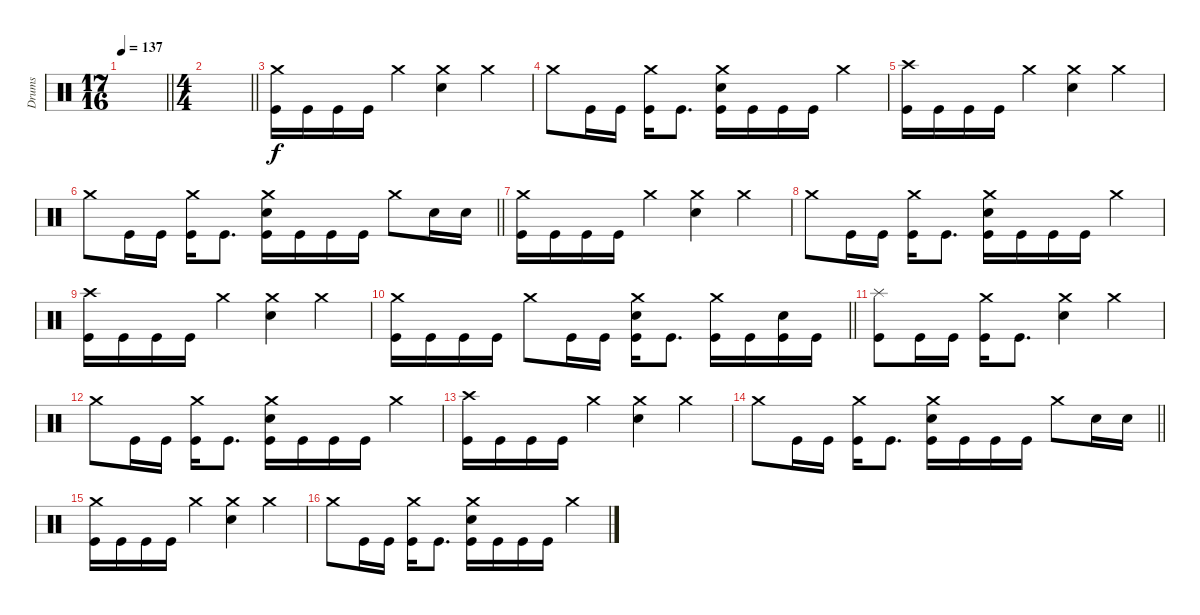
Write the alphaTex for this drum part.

\track ("Drums" "Drums") {instrument percussion}
\staff
\articulation defaults
\ts (17 16)
\tempo 137
\clef neutral
\barLineRight lightlight
\ks c
|
\ts (4 4)
\barLineRight lightlight
|
\section ("" "")
("Crash medium (hit)" "Kick (hit)").16 "Kick (hit)".16 "Kick (hit)".16 "Kick (hit)".16 "Crash medium (hit)".4 ("Crash medium (hit)" "Electric Snare (hit)").4 "Crash medium (hit)".4 |
"Crash medium (hit)".8 "Kick (hit)".16 "Kick (hit)".16 ("Crash medium (hit)" "Kick (hit)").16 "Kick (hit)".8{d} ("Crash medium (hit)" "Electric Snare (hit)" "Kick (hit)").16 "Kick (hit)".16 "Kick (hit)".16 "Kick (hit)".16 "Crash medium (hit)".4 |
("Crash high (hit)" "Kick (hit)").16 "Kick (hit)".16 "Kick (hit)".16 "Kick (hit)".16 "Crash medium (hit)".4 ("Crash medium (hit)" "Electric Snare (hit)").4 "Crash medium (hit)".4 |
\barLineRight lightlight "Crash medium (hit)".8 "Kick (hit)".16 "Kick (hit)".16
("Crash medium (hit)" "Kick (hit)").16 "Kick (hit)".8{d} ("Crash medium (hit)" "Electric Snare (hit)" "Kick (hit)").16 "Kick (hit)".16 "Kick (hit)".16 "Kick (hit)".16 "Crash medium (hit)".8 "Electric Snare (hit)".16 "Electric Snare (hit)".16 |
("Crash medium (hit)" "Kick (hit)").16 "Kick (hit)".16 "Kick (hit)".16 "Kick (hit)".16 "Crash medium (hit)".4 ("Crash medium (hit)" "Electric Snare (hit)").4 "Crash medium (hit)".4 |
"Crash medium (hit)".8 "Kick (hit)".16 "Kick (hit)".16 ("Crash medium (hit)" "Kick (hit)").16 "Kick (hit)".8{d} ("Crash medium (hit)" "Electric Snare (hit)" "Kick (hit)").16 "Kick (hit)".16 "Kick (hit)".16 "Kick (hit)".16 "Crash medium (hit)".4 |
("Crash high (hit)" "Kick (hit)").16 "Kick (hit)".16 "Kick (hit)".16 "Kick (hit)".16 "Crash medium (hit)".4 ("Crash medium (hit)" "Electric Snare (hit)").4 "Crash medium (hit)".4 |
\barLineRight lightlight
("Crash medium (hit)" "Kick (hit)").16 "Kick (hit)".16 "Kick (hit)".16 "Kick (hit)".16 "Crash medium (hit)".8 "Kick (hit)".16 "Kick (hit)".16 ("Crash medium (hit)" "Electric Snare (hit)" "Kick (hit)").16 "Kick (hit)".8{d} ("Crash medium (hit)" "Kick (hit)").16 "Kick (hit)".16 ("Electric Snare (hit)" "Kick (hit)").16 "Kick (hit)".16 |
("Splash (hit)" "Kick (hit)").8 "Kick (hit)".16 "Kick (hit)".16 ("Crash medium (hit)" "Kick (hit)").16 "Kick (hit)".8{d} ("Crash medium (hit)" "Electric Snare (hit)").4 "Crash medium (hit)".4 |
"Crash medium (hit)".8 "Kick (hit)".16 "Kick (hit)".16 ("Crash medium (hit)" "Kick (hit)").16 "Kick (hit)".8{d} ("Crash medium (hit)" "Electric Snare (hit)" "Kick (hit)").16 "Kick (hit)".16 "Kick (hit)".16 "Kick (hit)".16 "Crash medium (hit)".4 |
("Crash high (hit)" "Kick (hit)").16 "Kick (hit)".16 "Kick (hit)".16 "Kick (hit)".16 "Crash medium (hit)".4 ("Crash medium (hit)" "Electric Snare (hit)").4 "Crash medium (hit)".4 |
\barLineRight lightlight "Crash medium (hit)".8 "Kick (hit)".16 "Kick (hit)".16
("Crash medium (hit)" "Kick (hit)").16 "Kick (hit)".8{d} ("Crash medium (hit)" "Electric Snare (hit)" "Kick (hit)").16 "Kick (hit)".16 "Kick (hit)".16 "Kick (hit)".16 "Crash medium (hit)".8 "Electric Snare (hit)".16 "Electric Snare (hit)".16 |
("Crash medium (hit)" "Kick (hit)").16 "Kick (hit)".16 "Kick (hit)".16 "Kick (hit)".16 "Crash medium (hit)".4 ("Crash medium (hit)" "Electric Snare (hit)").4 "Crash medium (hit)".4 |
"Crash medium (hit)".8 "Kick (hit)".16 "Kick (hit)".16 ("Crash medium (hit)" "Kick (hit)").16 "Kick (hit)".8{d} ("Crash medium (hit)" "Electric Snare (hit)" "Kick (hit)").16 "Kick (hit)".16 "Kick (hit)".16 "Kick (hit)".16 "Crash medium (hit)".4
